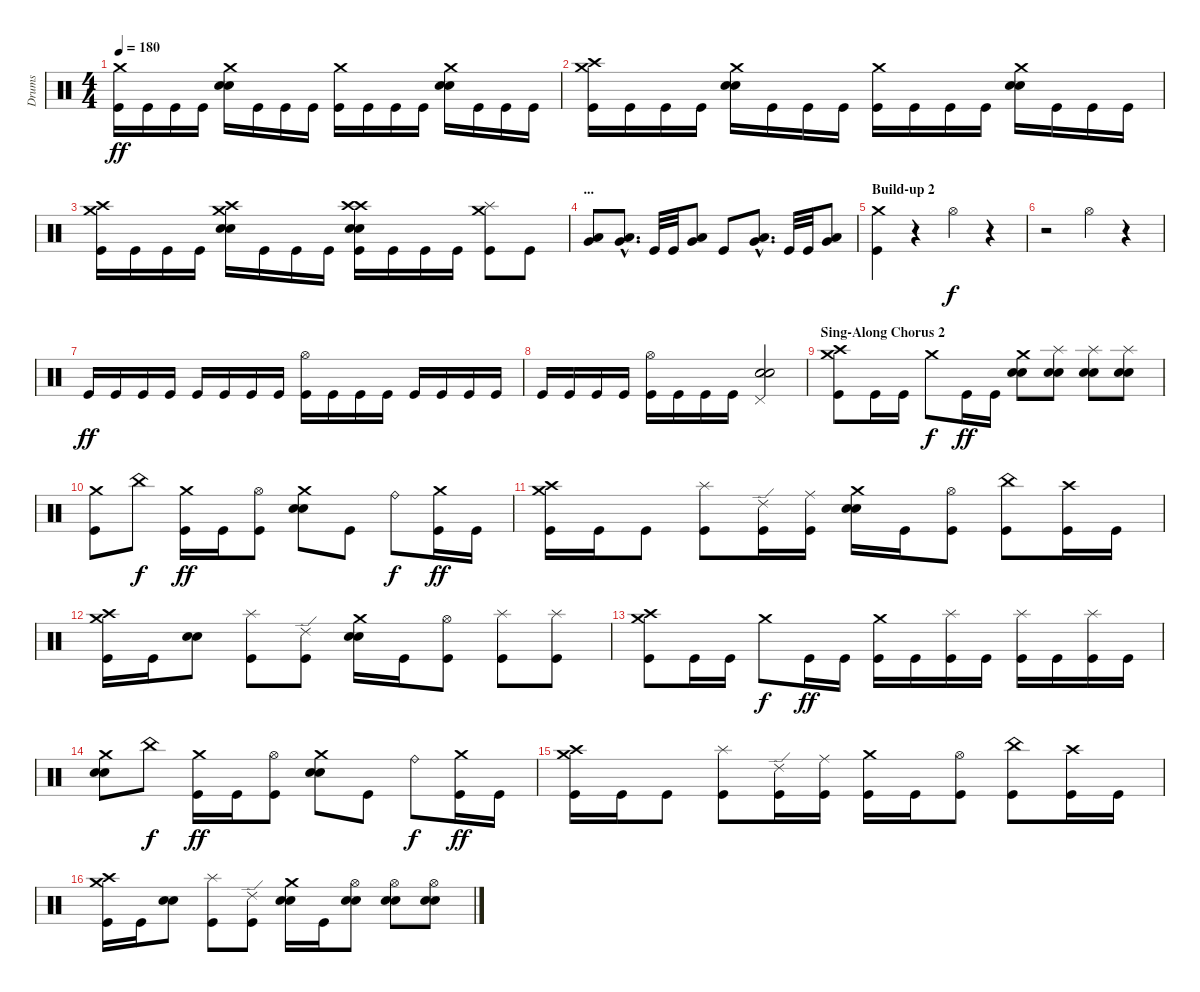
\track ("Drums" "Drums") {instrument percussion}
\staff {score}
\articulation defaults
\ts (4 4)
\tempo 180
\clef neutral
\ks c
("Kick (hit)" "Crash medium (hit)").16{dy ff} "Kick (hit)".16 "Kick (hit)".16 "Kick (hit)".16 ("Electric Snare (hit)" "Electric Snare (hit)" "Crash medium (hit)").16 "Kick (hit)".16 "Kick (hit)".16 "Kick (hit)".16 ("Kick (hit)" "Crash medium (hit)").16 "Kick (hit)".16 "Kick (hit)".16 "Kick (hit)".16 ("Electric Snare (hit)" "Electric Snare (hit)" "Crash medium (hit)").16 "Kick (hit)".16 "Kick (hit)".16 "Kick (hit)".16 |
("Kick (hit)" "Crash high (hit)" "Crash medium (hit)").16 "Kick (hit)".16 "Kick (hit)".16 "Kick (hit)".16 ("Electric Snare (hit)" "Electric Snare (hit)" "Crash medium (hit)").16 "Kick (hit)".16 "Kick (hit)".16 "Kick (hit)".16 ("Kick (hit)" "Crash medium (hit)").16 "Kick (hit)".16 "Kick (hit)".16 "Kick (hit)".16 ("Electric Snare (hit)" "Electric Snare (hit)" "Crash medium (hit)").16 "Kick (hit)".16 "Kick (hit)".16 "Kick (hit)".16 |
("Kick (hit)" "Crash high (hit)" "Crash medium (hit)").16 "Kick (hit)".16 "Kick (hit)".16 "Kick (hit)".16 ("Electric Snare (hit)" "Electric Snare (hit)" "Crash high (hit)" "Crash medium (hit)").16 "Kick (hit)".16 "Kick (hit)".16 "Kick (hit)".16 ("Kick (hit)" "Electric Snare (hit)" "Electric Snare (hit)" "Crash high (hit)" "Crash high (hit)").16 "Kick (hit)".16 "Kick (hit)".16 "Kick (hit)".16 ("Kick (hit)" "Splash (hit)" "Crash medium (hit)").8 "Kick (hit)".8 |
\section ("" "...")
("Very Low Tom (hit)" "Low Tom (hit)").8 ("Very Low Tom (hit)"{hac} "Low Tom (hit)"{hac}).8{d} "Kick (hit)".32 "Kick (hit)".32 ("Low Floor Tom (hit)" "Very Low Tom (hit)").8 "Kick (hit)".8 ("Very Low Tom (hit)"{hac} "Low Tom (hit)"{hac}).8{d} "Kick (hit)".32 "Kick (hit)".32 ("Low Floor Tom (hit)" "Very Low Tom (hit)").8 |
\section ("" "Build-up 2")
("Kick (hit)" "Crash medium (hit)").4 r.4 "Hi-Hat (open)".4{dy f} r.4 |
r.2 "Hi-Hat (open)".4 r.4 |
"Kick (hit)".16{dy ff} "Kick (hit)".16 "Kick (hit)".16 "Kick (hit)".16 "Kick (hit)".16 "Kick (hit)".16 "Kick (hit)".16 "Kick (hit)".16 ("Kick (hit)" "Hi-Hat (open)").16 "Kick (hit)".16 "Kick (hit)".16 "Kick (hit)".16 "Kick (hit)".16 "Kick (hit)".16 "Kick (hit)".16 "Kick (hit)".16 |
"Kick (hit)".16 "Kick (hit)".16 "Kick (hit)".16 "Kick (hit)".16 ("Kick (hit)" "Hi-Hat (open)").16 "Kick (hit)".16 "Kick (hit)".16 "Kick (hit)".16 ("Electric Snare (hit)" "Electric Snare (hit)" "Pedal Hi-Hat (hit)").2 |
\section ("" "Sing-Along Chorus 2")
("Kick (hit)" "Crash high (hit)" "Crash medium (hit)").8 "Kick (hit)".16 "Kick (hit)".16 "Crash medium (hit)".8{dy f} "Kick (hit)".16{dy ff} "Kick (hit)".16 ("Electric Snare (hit)" "Electric Snare (hit)" "Crash medium (hit)").8 ("Electric Snare (hit)" "Electric Snare (hit)" "Splash (hit)").8 ("Electric Snare (hit)" "Electric Snare (hit)" "Splash (hit)").8 ("Electric Snare (hit)" "Electric Snare (hit)" "Splash (hit)").8 |
("Kick (hit)" "Crash medium (hit)").8 "China (hit)".8{dy f} ("Kick (hit)" "Crash medium (hit)").16{dy ff} "Kick (hit)".16 ("Kick (hit)" "Hi-Hat (open)").8 ("Electric Snare (hit)" "Electric Snare (hit)" "Crash medium (hit)").8 "Kick (hit)".8 "Ride (bell)".8{dy f} ("Kick (hit)" "Crash medium (hit)").16{dy ff} "Kick (hit)".16 |
("Kick (hit)" "Crash high (hit)" "Crash medium (hit)").16 "Kick (hit)".16 "Kick (hit)".8 ("Kick (hit)" "Splash (hit)").8 ("Kick (hit)" "Ride (edge) 2").16 ("Kick (hit)" "Ride (middle)").16 ("Electric Snare (hit)" "Electric Snare (hit)" "Crash medium (hit)").16 "Kick (hit)".16 ("Kick (hit)" "Hi-Hat (open)").8 ("Kick (hit)" "China (hit)").8 ("Kick (hit)" "Crash high (hit)").16 "Kick (hit)".16 |
("Kick (hit)" "Crash high (hit)" "Crash medium (hit)").16 "Kick (hit)".16 ("Electric Snare (hit)" "Electric Snare (hit)").8 ("Kick (hit)" "Splash (hit)").8 ("Kick (hit)" "Ride (edge) 2").8 ("Electric Snare (hit)" "Electric Snare (hit)" "Crash medium (hit)").16 "Kick (hit)".16 ("Kick (hit)" "Hi-Hat (open)").8 ("Kick (hit)" "Splash (hit)").8 ("Kick (hit)" "Splash (hit)").8 |
("Kick (hit)" "Crash high (hit)" "Crash medium (hit)").8 "Kick (hit)".16 "Kick (hit)".16 "Crash medium (hit)".8{dy f} "Kick (hit)".16{dy ff} "Kick (hit)".16 ("Kick (hit)" "Crash medium (hit)").16 "Kick (hit)".16 ("Kick (hit)" "Splash (hit)").16 "Kick (hit)".16 ("Kick (hit)" "Splash (hit)").16 "Kick (hit)".16 ("Kick (hit)" "Splash (hit)").16 "Kick (hit)".16 |
("Electric Snare (hit)" "Electric Snare (hit)" "Crash medium (hit)").8 "China (hit)".8{dy f} ("Kick (hit)" "Crash medium (hit)").16{dy ff} "Kick (hit)".16 ("Kick (hit)" "Hi-Hat (open)").8 ("Electric Snare (hit)" "Electric Snare (hit)" "Crash medium (hit)").8 "Kick (hit)".8 "Ride (bell)".8{dy f} ("Kick (hit)" "Crash medium (hit)").16{dy ff} "Kick (hit)".16 |
("Kick (hit)" "Crash high (hit)" "Crash medium (hit)").16 "Kick (hit)".16 "Kick (hit)".8 ("Kick (hit)" "Splash (hit)").8 ("Kick (hit)" "Ride (edge) 2").16 ("Kick (hit)" "Ride (middle)").16 ("Kick (hit)" "Crash medium (hit)").16 "Kick (hit)".16 ("Kick (hit)" "Hi-Hat (open)").8 ("Kick (hit)" "China (hit)").8 ("Kick (hit)" "Crash high (hit)").16 "Kick (hit)".16 |
("Kick (hit)" "Crash high (hit)" "Crash medium (hit)").16 "Kick (hit)".16 ("Electric Snare (hit)" "Electric Snare (hit)").8 ("Kick (hit)" "Splash (hit)").8 ("Kick (hit)" "Ride (edge) 2").8 ("Electric Snare (hit)" "Electric Snare (hit)" "Crash medium (hit)").16 "Kick (hit)".16 ("Electric Snare (hit)" "Electric Snare (hit)" "Hi-Hat (open)").8 ("Electric Snare (hit)" "Electric Snare (hit)" "Hi-Hat (open)").8 ("Electric Snare (hit)" "Electric Snare (hit)" "Hi-Hat (open)").8
